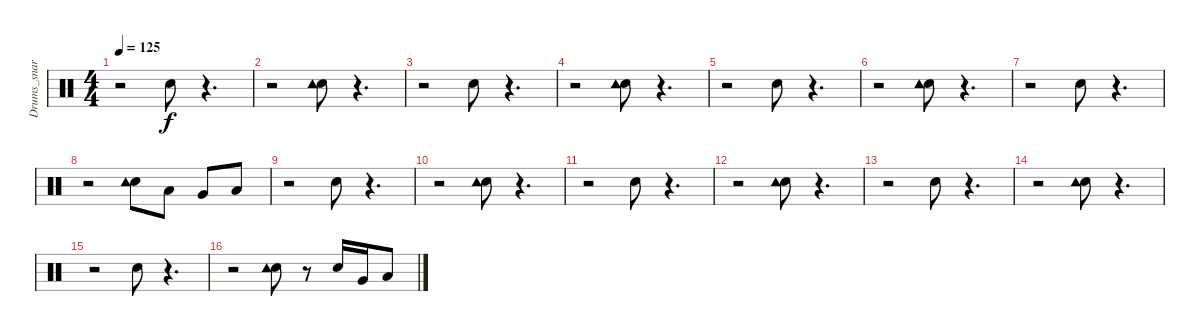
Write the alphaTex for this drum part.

\track ("Drums_snare&tom" "Drums_snar") {instrument percussion}
\staff {score}
\articulation defaults
\ts (4 4)
\tempo 125
\clef neutral
\ks c
r.2{dy f} "Electric Snare (hit)".8 r.4{d} |
r.2 ("Electric Snare (hit)" "Tambourine (hit)").8 r.4{d} |
r.2 "Electric Snare (hit)".8 r.4{d} |
r.2 ("Electric Snare (hit)" "Tambourine (hit)").8 r.4{d} |
r.2 "Electric Snare (hit)".8 r.4{d} |
r.2 ("Electric Snare (hit)" "Tambourine (hit)").8 r.4{d} |
r.2 "Electric Snare (hit)".8 r.4{d} |
r.2 ("Electric Snare (hit)" "Tambourine (hit)").8 "Low Tom (hit)".8 "Very Low Tom (hit)".8 "Low Floor Tom (hit)".8 |
r.2 "Electric Snare (hit)".8 r.4{d} |
r.2 ("Electric Snare (hit)" "Tambourine (hit)").8 r.4{d} |
r.2 "Electric Snare (hit)".8 r.4{d} |
r.2 ("Electric Snare (hit)" "Tambourine (hit)").8 r.4{d} |
r.2 "Electric Snare (hit)".8 r.4{d} |
r.2 ("Electric Snare (hit)" "Tambourine (hit)").8 r.4{d} |
r.2 "Electric Snare (hit)".8 r.4{d} |
r.2 ("Electric Snare (hit)" "Tambourine (hit)").8 r.8 "Electric Snare (hit)".16 "Very Low Tom (hit)".16 "Low Floor Tom (hit)".8
